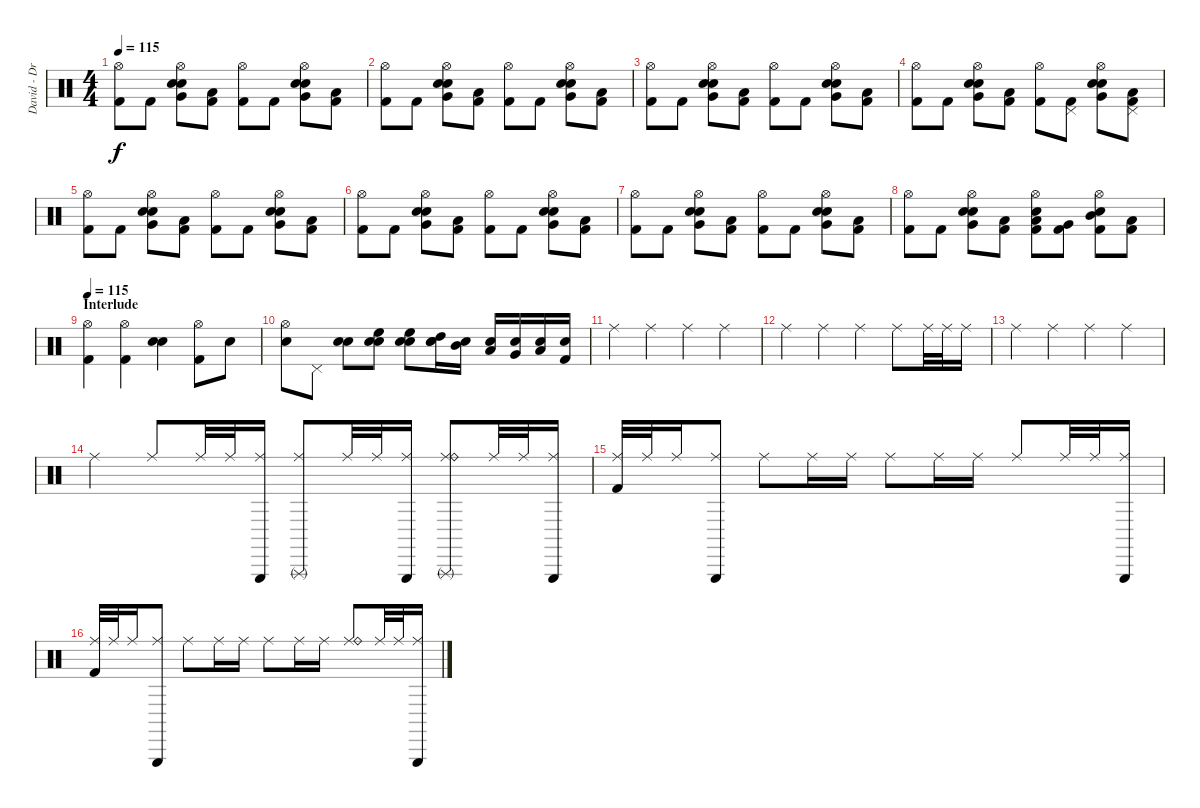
\track ("David - Drums" "David - Dr") {instrument percussion}
\staff {score}
\articulation defaults
\ts (4 4)
\tempo 115
\clef neutral
\ks c
("Hi-Hat (open)" "Kick (hit) 2").8{dy f} "Kick (hit) 2".8 ("Hi-Hat (open)" "Very Low Tom (hit)" "Electric Snare (hit)" "Snare (hit) 2").8 ("Low Floor Tom (hit)" "Kick (hit) 2").8 ("Hi-Hat (open)" "Kick (hit) 2").8 "Kick (hit) 2".8 ("Hi-Hat (open)" "Very Low Tom (hit)" "Electric Snare (hit)" "Snare (hit) 2").8 ("Low Floor Tom (hit)" "Kick (hit) 2").8 |
("Hi-Hat (open)" "Kick (hit) 2").8 "Kick (hit) 2".8 ("Hi-Hat (open)" "Very Low Tom (hit)" "Electric Snare (hit)" "Snare (hit) 2").8 ("Low Floor Tom (hit)" "Kick (hit) 2").8 ("Hi-Hat (open)" "Kick (hit) 2").8 "Kick (hit) 2".8 ("Hi-Hat (open)" "Very Low Tom (hit)" "Electric Snare (hit)" "Snare (hit) 2").8 ("Low Floor Tom (hit)" "Kick (hit) 2").8 |
("Hi-Hat (open)" "Kick (hit) 2").8 "Kick (hit) 2".8 ("Hi-Hat (open)" "Very Low Tom (hit)" "Electric Snare (hit)" "Snare (hit) 2").8 ("Low Floor Tom (hit)" "Kick (hit) 2").8 ("Hi-Hat (open)" "Kick (hit) 2").8 "Kick (hit) 2".8 ("Hi-Hat (open)" "Very Low Tom (hit)" "Electric Snare (hit)" "Snare (hit) 2").8 ("Low Floor Tom (hit)" "Kick (hit) 2").8 |
("Hi-Hat (open)" "Kick (hit) 2").8 "Kick (hit) 2".8 ("Hi-Hat (open)" "Very Low Tom (hit)" "Electric Snare (hit)" "Snare (hit) 2").8 ("Low Floor Tom (hit)" "Kick (hit) 2").8 ("Hi-Hat (open)" "Kick (hit) 2").8 ("Pedal Hi-Hat (hit)" "Kick (hit) 2").8 ("Hi-Hat (open)" "Very Low Tom (hit)" "Electric Snare (hit)" "Snare (hit) 2").8 ("Pedal Hi-Hat (hit)" "Low Floor Tom (hit)" "Kick (hit) 2").8 |
("Hi-Hat (open)" "Kick (hit) 2").8 "Kick (hit) 2".8 ("Hi-Hat (open)" "Very Low Tom (hit)" "Electric Snare (hit)" "Snare (hit) 2").8 ("Low Floor Tom (hit)" "Kick (hit) 2").8 ("Hi-Hat (open)" "Kick (hit) 2").8 "Kick (hit) 2".8 ("Hi-Hat (open)" "Very Low Tom (hit)" "Electric Snare (hit)" "Snare (hit) 2").8 ("Low Floor Tom (hit)" "Kick (hit) 2").8 |
("Hi-Hat (open)" "Kick (hit) 2").8 "Kick (hit) 2".8 ("Hi-Hat (open)" "Very Low Tom (hit)" "Electric Snare (hit)" "Snare (hit) 2").8 ("Low Floor Tom (hit)" "Kick (hit) 2").8 ("Hi-Hat (open)" "Kick (hit) 2").8 "Kick (hit) 2".8 ("Hi-Hat (open)" "Very Low Tom (hit)" "Electric Snare (hit)" "Snare (hit) 2").8 ("Low Floor Tom (hit)" "Kick (hit) 2").8 |
("Hi-Hat (open)" "Kick (hit) 2").8 "Kick (hit) 2".8 ("Hi-Hat (open)" "Very Low Tom (hit)" "Electric Snare (hit)" "Snare (hit) 2").8 ("Low Floor Tom (hit)" "Kick (hit) 2").8 ("Hi-Hat (open)" "Kick (hit) 2").8 "Kick (hit) 2".8 ("Hi-Hat (open)" "Very Low Tom (hit)" "Electric Snare (hit)" "Snare (hit) 2").8 ("Low Floor Tom (hit)" "Kick (hit) 2").8 |
("Hi-Hat (open)" "Kick (hit) 2").8 "Kick (hit) 2".8 ("Hi-Hat (open)" "Very Low Tom (hit)" "Electric Snare (hit)" "Snare (hit) 2").8 ("Low Floor Tom (hit)" "Kick (hit) 2").8 ("Hi-Hat (open)" "Low Tom (hit)" "Electric Snare (hit)" "Kick (hit) 2").8 ("Very Low Tom (hit)" "Kick (hit) 2").8 ("Hi-Hat (open)" "Mid Tom (hit)" "Electric Snare (hit)" "Kick (hit) 2").8 ("Low Floor Tom (hit)" "Kick (hit) 2").8 |
\section ("" "Interlude")
\tempo 115
("Hi-Hat (open)" "Kick (hit) 2").4 ("Hi-Hat (open)" "Kick (hit) 2").4 ("Electric Snare (hit)" "Snare (hit) 2").4 ("Hi-Hat (open)" "Kick (hit) 2").8 "Electric Snare (hit)".8 |
("Hi-Hat (open)" "Snare (hit) 2").8 "Pedal Hi-Hat (hit)".8 ("Electric Snare (hit)" "Snare (hit) 2").8{bd 240} ("High Floor Tom (hit)" "Electric Snare (hit)" "Snare (hit) 2").8 ("High Floor Tom (hit)" "Electric Snare (hit)" "Snare (hit) 2").8 ("High Tom (hit)" "Electric Snare (hit)" "Snare (hit) 2").16 ("Mid Tom (hit)" "Snare (hit) 2").16 ("Low Tom (hit)" "Snare (hit) 2").16 ("Very Low Tom (hit)" "Snare (hit) 2").16 ("Low Floor Tom (hit)" "Snare (hit) 2").16 ("Kick (hit) 2" "Snare (hit) 2").16 |
"Ride (middle)".4 "Ride (middle)".4 "Ride (middle)".4 "Ride (middle)".4 |
"Ride (middle)".4 "Ride (middle)".4 "Ride (middle)".4 "Ride (middle)".8 "Ride (middle)".32 "Ride (middle)".32 "Ride (middle)".16 |
"Ride (middle)".4 "Ride (middle)".4 "Ride (middle)".4 "Ride (middle)".4 |
"Ride (middle)".4 "Ride (middle)".8 "Ride (middle)".32 "Ride (middle)".32 ("Ride (middle)" "Triangle (hit)").16 ("Ride (middle)" "Triangle (rnute)").8 "Ride (middle)".32 "Ride (middle)".32 ("Ride (middle)" "Triangle (hit)").16 ("Ride (middle)" "Ride (bell)" "Triangle (rnute)").8 "Ride (middle)".32 "Ride (middle)".32 ("Ride (middle)" "Triangle (hit)").16 |
("Ride (middle)" "Kick (hit) 2").32 "Ride (middle)".32 "Ride (middle)".16 ("Ride (middle)" "Triangle (hit)").8 "Ride (middle)".8 "Ride (middle)".16 "Ride (middle)".16 "Ride (middle)".8 "Ride (middle)".16 "Ride (middle)".16 "Ride (middle)".8 "Ride (middle)".32 "Ride (middle)".32 ("Ride (middle)" "Triangle (hit)").16 |
("Ride (middle)" "Kick (hit) 2").32 "Ride (middle)".32 "Ride (middle)".16 ("Ride (middle)" "Triangle (hit)").8 "Ride (middle)".8 "Ride (middle)".16 "Ride (middle)".16 "Ride (middle)".8 "Ride (middle)".16 "Ride (middle)".16 ("Ride (middle)" "Ride (bell)").8 "Ride (middle)".32 "Ride (middle)".32 ("Ride (middle)" "Triangle (hit)").16
